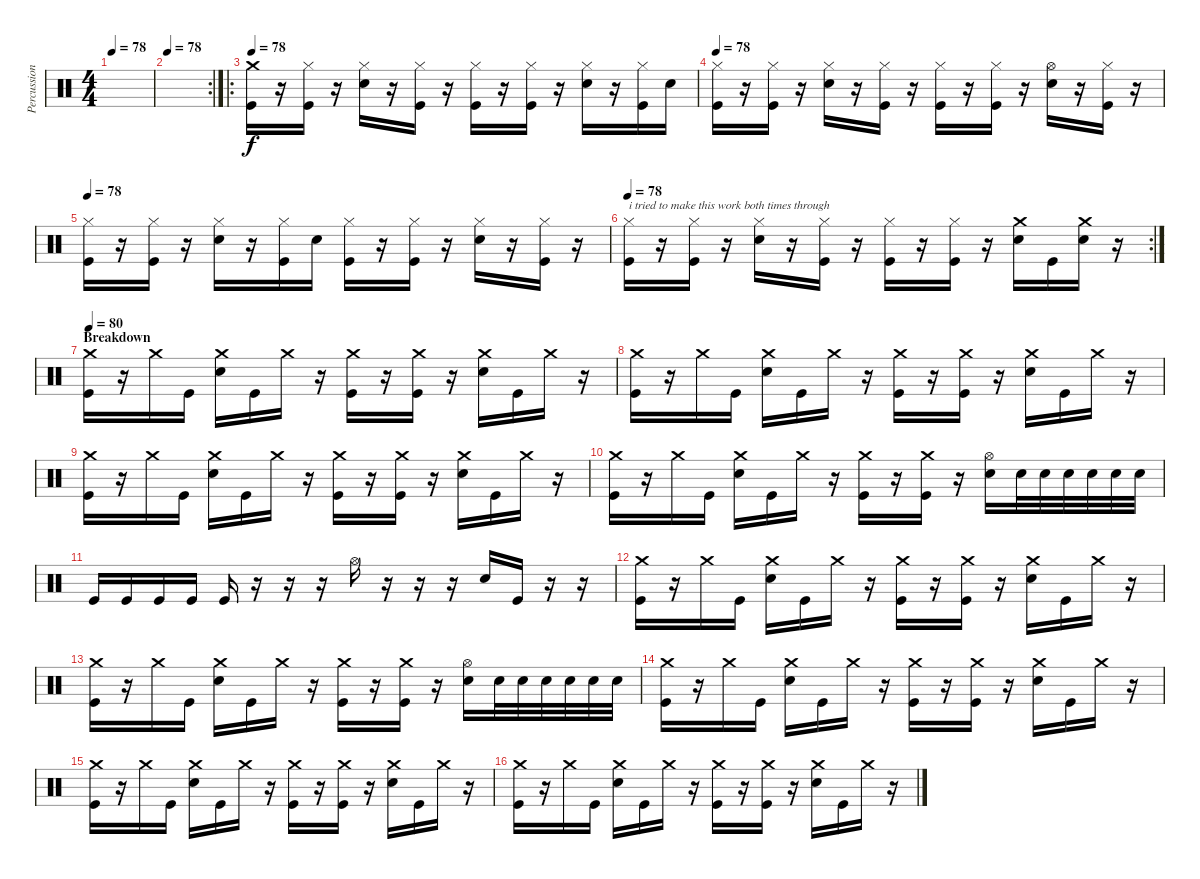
\track ("Percussion" "Percussion") {instrument percussion}
\staff {score}
\articulation defaults
\ts (4 4)
\tempo 78
\clef neutral
\ks c
|
\rc 2
\tempo 78
|
\ro
\tempo 78
("Crash medium (hit)" "Kick (hit)").16 r.16 ("Hi-Hat (closed)" "Kick (hit)").16 r.16 ("Hi-Hat (closed)" "Snare (hit) 2").16 r.16 ("Hi-Hat (closed)" "Kick (hit)").16 r.16 ("Hi-Hat (closed)" "Kick (hit)").16 r.16 ("Hi-Hat (closed)" "Kick (hit)").16 r.16 ("Hi-Hat (closed)" "Snare (hit) 2").16 r.16 ("Hi-Hat (closed)" "Kick (hit)").16 "Snare (hit) 2".16 |
\tempo 78
("Hi-Hat (closed)" "Kick (hit)").16 r.16 ("Hi-Hat (closed)" "Kick (hit)").16 r.16 ("Hi-Hat (closed)" "Snare (hit) 2").16 r.16 ("Hi-Hat (closed)" "Kick (hit)").16 r.16 ("Hi-Hat (closed)" "Kick (hit)").16 r.16 ("Hi-Hat (closed)" "Kick (hit)").16 r.16 ("Hi-Hat (open)" "Snare (hit) 2").16 r.16 ("Hi-Hat (closed)" "Kick (hit)").16 r.16 |
\tempo 78
("Hi-Hat (closed)" "Kick (hit)").16 r.16 ("Hi-Hat (closed)" "Kick (hit)").16 r.16 ("Hi-Hat (closed)" "Snare (hit) 2").16 r.16 ("Hi-Hat (closed)" "Kick (hit)").16 "Snare (hit) 2".16 ("Hi-Hat (closed)" "Kick (hit)").16 r.16 ("Hi-Hat (closed)" "Kick (hit)").16 r.16 ("Hi-Hat (closed)" "Snare (hit) 2").16 r.16 ("Hi-Hat (closed)" "Kick (hit)").16 r.16 |
\rc 2
\tempo 78
("Hi-Hat (closed)" "Kick (hit)").16{txt "i tried to make this work both times through"} r.16 ("Hi-Hat (closed)" "Kick (hit)").16 r.16 ("Hi-Hat (closed)" "Snare (hit) 2").16 r.16 ("Hi-Hat (closed)" "Kick (hit)").16 r.16 ("Hi-Hat (closed)" "Kick (hit)").16 r.16 ("Hi-Hat (closed)" "Kick (hit)").16 r.16 ("Crash medium (hit)" "Snare (hit) 2").16 "Kick (hit)".16 ("Crash medium (hit)" "Snare (hit) 2").16 r.16 |
\section ("" "Breakdown")
\tempo 80
("Crash medium (hit)" "Kick (hit)").16 r.16 "Crash medium (hit)".16 "Kick (hit)".16 ("Crash medium (hit)" "Snare (hit) 2").16 "Kick (hit)".16 "Crash medium (hit)".16 r.16 ("Crash medium (hit)" "Kick (hit)").16 r.16 ("Crash medium (hit)" "Kick (hit)").16 r.16 ("Crash medium (hit)" "Snare (hit) 2").16 "Kick (hit)".16 "Crash medium (hit)".16 r.16 |
("Crash medium (hit)" "Kick (hit)").16 r.16 "Crash medium (hit)".16 "Kick (hit)".16 ("Crash medium (hit)" "Snare (hit) 2").16 "Kick (hit)".16 "Crash medium (hit)".16 r.16 ("Crash medium (hit)" "Kick (hit)").16 r.16 ("Crash medium (hit)" "Kick (hit)").16 r.16 ("Crash medium (hit)" "Snare (hit) 2").16 "Kick (hit)".16 "Crash medium (hit)".16 r.16 |
("Crash medium (hit)" "Kick (hit)").16 r.16 "Crash medium (hit)".16 "Kick (hit)".16 ("Crash medium (hit)" "Snare (hit) 2").16 "Kick (hit)".16 "Crash medium (hit)".16 r.16 ("Crash medium (hit)" "Kick (hit)").16 r.16 ("Crash medium (hit)" "Kick (hit)").16 r.16 ("Crash medium (hit)" "Snare (hit) 2").16 "Kick (hit)".16 "Crash medium (hit)".16 r.16 |
("Crash medium (hit)" "Kick (hit)").16 r.16 "Crash medium (hit)".16 "Kick (hit)".16 ("Crash medium (hit)" "Snare (hit) 2").16 "Kick (hit)".16 "Crash medium (hit)".16 r.16 ("Crash medium (hit)" "Kick (hit)").16 r.16 ("Crash medium (hit)" "Kick (hit)").16 r.16 ("Hi-Hat (open)" "Snare (hit) 2").16 "Snare (hit) 2".32 "Snare (hit) 2".32 "Snare (hit) 2".32 "Snare (hit) 2".32 "Snare (hit) 2".32 "Snare (hit) 2".32 |
"Kick (hit)".16 "Kick (hit)".16 "Kick (hit)".16 "Kick (hit)".16 "Kick (hit)".16 r.16 r.16 r.16 "Hi-Hat (open)".16 r.16 r.16 r.16 "Snare (hit) 2".16 "Kick (hit)".16 r.16 r.16 |
("Crash medium (hit)" "Kick (hit)").16 r.16 "Crash medium (hit)".16 "Kick (hit)".16 ("Crash medium (hit)" "Snare (hit) 2").16 "Kick (hit)".16 "Crash medium (hit)".16 r.16 ("Crash medium (hit)" "Kick (hit)").16 r.16 ("Crash medium (hit)" "Kick (hit)").16 r.16 ("Crash medium (hit)" "Snare (hit) 2").16 "Kick (hit)".16 "Crash medium (hit)".16 r.16 |
("Crash medium (hit)" "Kick (hit)").16 r.16 "Crash medium (hit)".16 "Kick (hit)".16 ("Crash medium (hit)" "Snare (hit) 2").16 "Kick (hit)".16 "Crash medium (hit)".16 r.16 ("Crash medium (hit)" "Kick (hit)").16 r.16 ("Crash medium (hit)" "Kick (hit)").16 r.16 ("Hi-Hat (open)" "Snare (hit) 2").16 "Snare (hit) 2".32 "Snare (hit) 2".32 "Snare (hit) 2".32 "Snare (hit) 2".32 "Snare (hit) 2".32 "Snare (hit) 2".32 |
("Crash medium (hit)" "Kick (hit)").16 r.16 "Crash medium (hit)".16 "Kick (hit)".16 ("Crash medium (hit)" "Snare (hit) 2").16 "Kick (hit)".16 "Crash medium (hit)".16 r.16 ("Crash medium (hit)" "Kick (hit)").16 r.16 ("Crash medium (hit)" "Kick (hit)").16 r.16 ("Crash medium (hit)" "Snare (hit) 2").16 "Kick (hit)".16 "Crash medium (hit)".16 r.16 |
("Crash medium (hit)" "Kick (hit)").16 r.16 "Crash medium (hit)".16 "Kick (hit)".16 ("Crash medium (hit)" "Snare (hit) 2").16 "Kick (hit)".16 "Crash medium (hit)".16 r.16 ("Crash medium (hit)" "Kick (hit)").16 r.16 ("Crash medium (hit)" "Kick (hit)").16 r.16 ("Crash medium (hit)" "Snare (hit) 2").16 "Kick (hit)".16 "Crash medium (hit)".16 r.16 |
("Crash medium (hit)" "Kick (hit)").16 r.16 "Crash medium (hit)".16 "Kick (hit)".16 ("Crash medium (hit)" "Snare (hit) 2").16 "Kick (hit)".16 "Crash medium (hit)".16 r.16 ("Crash medium (hit)" "Kick (hit)").16 r.16 ("Crash medium (hit)" "Kick (hit)").16 r.16 ("Crash medium (hit)" "Snare (hit) 2").16 "Kick (hit)".16 "Crash medium (hit)".16 r.16
